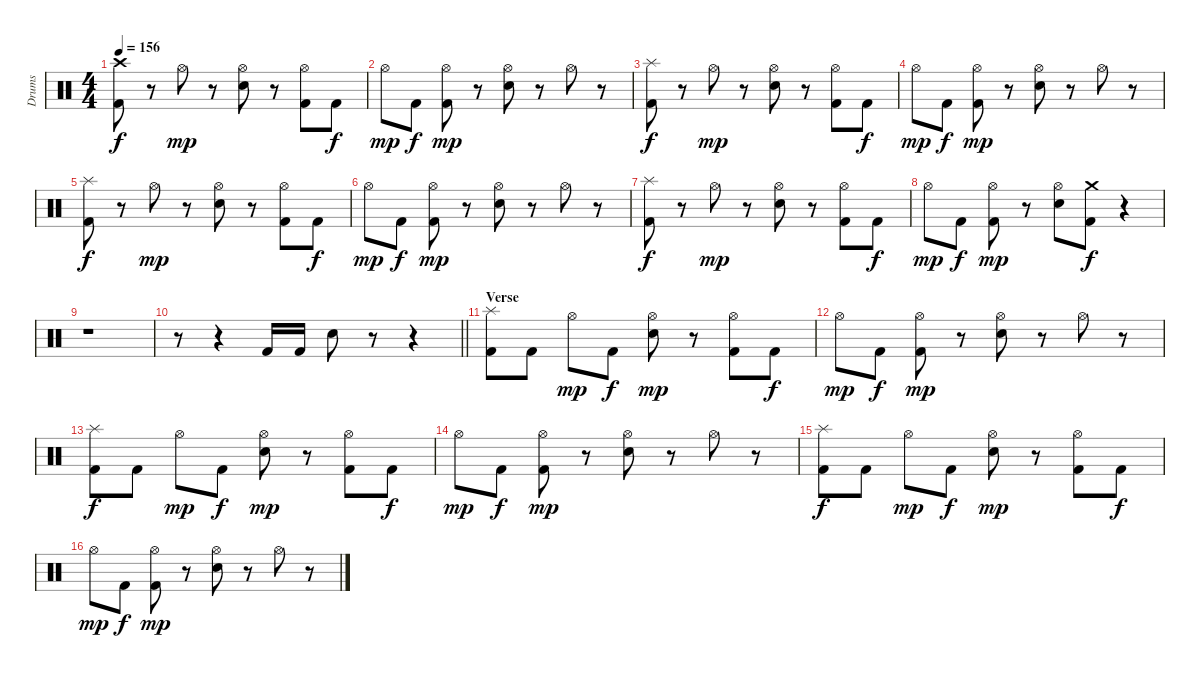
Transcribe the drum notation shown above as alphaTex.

\track ("Drums" "Drums") {instrument percussion}
\staff {score}
\articulation defaults
\ts (4 4)
\tempo 156
\clef neutral
\ks c
("Kick (hit) 2" "Crash high (hit)").8{dy f} r.8 "Hi-Hat (open)".8{dy mp} r.8 ("Snare (hit) 2" "Hi-Hat (open)").8 r.8 ("Kick (hit) 2" "Hi-Hat (open)").8 "Kick (hit) 2".8{dy f} |
"Hi-Hat (open)".8{dy mp} "Kick (hit) 2".8{dy f} ("Kick (hit) 2" "Hi-Hat (open)").8{dy mp} r.8 ("Snare (hit) 2" "Hi-Hat (open)").8 r.8 "Hi-Hat (open)".8 r.8 |
("Kick (hit) 2" "Splash (hit)").8{dy f} r.8 "Hi-Hat (open)".8{dy mp} r.8 ("Snare (hit) 2" "Hi-Hat (open)").8 r.8 ("Kick (hit) 2" "Hi-Hat (open)").8 "Kick (hit) 2".8{dy f} |
"Hi-Hat (open)".8{dy mp} "Kick (hit) 2".8{dy f} ("Kick (hit) 2" "Hi-Hat (open)").8{dy mp} r.8 ("Snare (hit) 2" "Hi-Hat (open)").8 r.8 "Hi-Hat (open)".8 r.8 |
("Kick (hit) 2" "Splash (hit)").8{dy f} r.8 "Hi-Hat (open)".8{dy mp} r.8 ("Snare (hit) 2" "Hi-Hat (open)").8 r.8 ("Kick (hit) 2" "Hi-Hat (open)").8 "Kick (hit) 2".8{dy f} |
"Hi-Hat (open)".8{dy mp} "Kick (hit) 2".8{dy f} ("Kick (hit) 2" "Hi-Hat (open)").8{dy mp} r.8 ("Snare (hit) 2" "Hi-Hat (open)").8 r.8 "Hi-Hat (open)".8 r.8 |
("Kick (hit) 2" "Splash (hit)").8{dy f} r.8 "Hi-Hat (open)".8{dy mp} r.8 ("Snare (hit) 2" "Hi-Hat (open)").8 r.8 ("Kick (hit) 2" "Hi-Hat (open)").8 "Kick (hit) 2".8{dy f} |
"Hi-Hat (open)".8{dy mp} "Kick (hit) 2".8{dy f} ("Kick (hit) 2" "Hi-Hat (open)").8{dy mp} r.8 ("Snare (hit) 2" "Hi-Hat (open)").8 ("Kick (hit) 2" "Crash medium (hit)").8{dy f} r.4 |
r.1 |
\barLineRight lightlight
r.8 r.4 "Kick (hit) 2".16 "Kick (hit) 2".16 "Snare (hit) 2".8 r.8 r.4 |
\section ("" "Verse")
("Kick (hit) 2" "Splash (hit)").8 "Kick (hit) 2".8 "Hi-Hat (open)".8{dy mp} "Kick (hit) 2".8{dy f} ("Snare (hit) 2" "Hi-Hat (open)").8{dy mp} r.8 ("Kick (hit) 2" "Hi-Hat (open)").8 "Kick (hit) 2".8{dy f} |
"Hi-Hat (open)".8{dy mp} "Kick (hit) 2".8{dy f} ("Kick (hit) 2" "Hi-Hat (open)").8{dy mp} r.8 ("Snare (hit) 2" "Hi-Hat (open)").8 r.8 "Hi-Hat (open)".8 r.8 |
("Kick (hit) 2" "Splash (hit)").8{dy f} "Kick (hit) 2".8 "Hi-Hat (open)".8{dy mp} "Kick (hit) 2".8{dy f} ("Snare (hit) 2" "Hi-Hat (open)").8{dy mp} r.8 ("Kick (hit) 2" "Hi-Hat (open)").8 "Kick (hit) 2".8{dy f} |
"Hi-Hat (open)".8{dy mp} "Kick (hit) 2".8{dy f} ("Kick (hit) 2" "Hi-Hat (open)").8{dy mp} r.8 ("Snare (hit) 2" "Hi-Hat (open)").8 r.8 "Hi-Hat (open)".8 r.8 |
("Kick (hit) 2" "Splash (hit)").8{dy f} "Kick (hit) 2".8 "Hi-Hat (open)".8{dy mp} "Kick (hit) 2".8{dy f} ("Snare (hit) 2" "Hi-Hat (open)").8{dy mp} r.8 ("Kick (hit) 2" "Hi-Hat (open)").8 "Kick (hit) 2".8{dy f} |
"Hi-Hat (open)".8{dy mp} "Kick (hit) 2".8{dy f} ("Kick (hit) 2" "Hi-Hat (open)").8{dy mp} r.8 ("Snare (hit) 2" "Hi-Hat (open)").8 r.8 "Hi-Hat (open)".8 r.8
